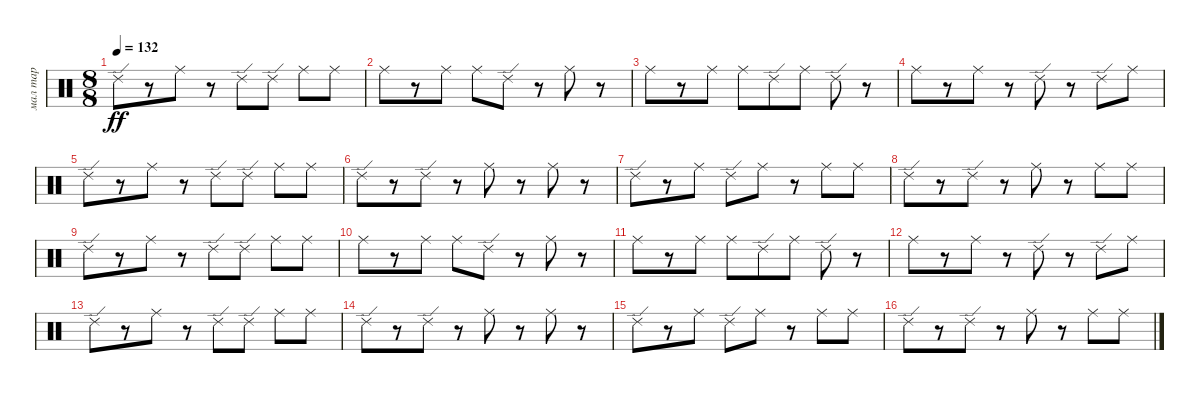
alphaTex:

\track ("мал тар" "мал тар") {instrument percussion}
\staff {score}
\articulation defaults
\ts (8 8)
\tempo 132
\clef neutral
\ks c "Ride (edge) 2".8{dy ff}
r.8 "Ride (middle)".8 r.8 "Ride (edge) 2".8 "Ride (edge) 2".8 "Ride (middle)".8 "Ride (middle)".8 |
"Ride (middle)".8 r.8 "Ride (middle)".8 "Ride (middle)".8 "Ride (edge) 2".8 r.8 "Ride (middle)".8 r.8 |
"Ride (middle)".8 r.8 "Ride (middle)".8 "Ride (middle)".8 "Ride (edge) 2".8 "Ride (middle)".8 "Ride (edge) 2".8 r.8 |
"Ride (middle)".8 r.8 "Ride (middle)".8 r.8 "Ride (edge) 2".8 r.8 "Ride (edge) 2".8 "Ride (middle)".8 |
"Ride (edge) 2".8 r.8 "Ride (middle)".8 r.8 "Ride (edge) 2".8 "Ride (edge) 2".8 "Ride (middle)".8 "Ride (middle)".8 |
"Ride (edge) 2".8 r.8 "Ride (edge) 2".8 r.8 "Ride (middle)".8 r.8 "Ride (middle)".8 r.8 |
"Ride (edge) 2".8 r.8 "Ride (middle)".8 "Ride (edge) 2".8 "Ride (middle)".8 r.8 "Ride (middle)".8 "Ride (middle)".8 |
"Ride (edge) 2".8 r.8 "Ride (edge) 2".8 r.8 "Ride (middle)".8 r.8 "Ride (middle)".8 "Ride (middle)".8 |
"Ride (edge) 2".8 r.8 "Ride (middle)".8 r.8 "Ride (edge) 2".8 "Ride (edge) 2".8 "Ride (middle)".8 "Ride (middle)".8 |
"Ride (middle)".8 r.8 "Ride (middle)".8 "Ride (middle)".8 "Ride (edge) 2".8 r.8 "Ride (middle)".8 r.8 |
"Ride (middle)".8 r.8 "Ride (middle)".8 "Ride (middle)".8 "Ride (edge) 2".8 "Ride (middle)".8 "Ride (edge) 2".8 r.8 |
"Ride (middle)".8 r.8 "Ride (middle)".8 r.8 "Ride (edge) 2".8 r.8 "Ride (edge) 2".8 "Ride (middle)".8 |
"Ride (edge) 2".8 r.8 "Ride (middle)".8 r.8 "Ride (edge) 2".8 "Ride (edge) 2".8 "Ride (middle)".8 "Ride (middle)".8 |
"Ride (edge) 2".8 r.8 "Ride (edge) 2".8 r.8 "Ride (middle)".8 r.8 "Ride (middle)".8 r.8 |
"Ride (edge) 2".8 r.8 "Ride (middle)".8 "Ride (edge) 2".8 "Ride (middle)".8 r.8 "Ride (middle)".8 "Ride (middle)".8 |
"Ride (edge) 2".8 r.8 "Ride (edge) 2".8 r.8 "Ride (middle)".8 r.8 "Ride (middle)".8 "Ride (middle)".8
